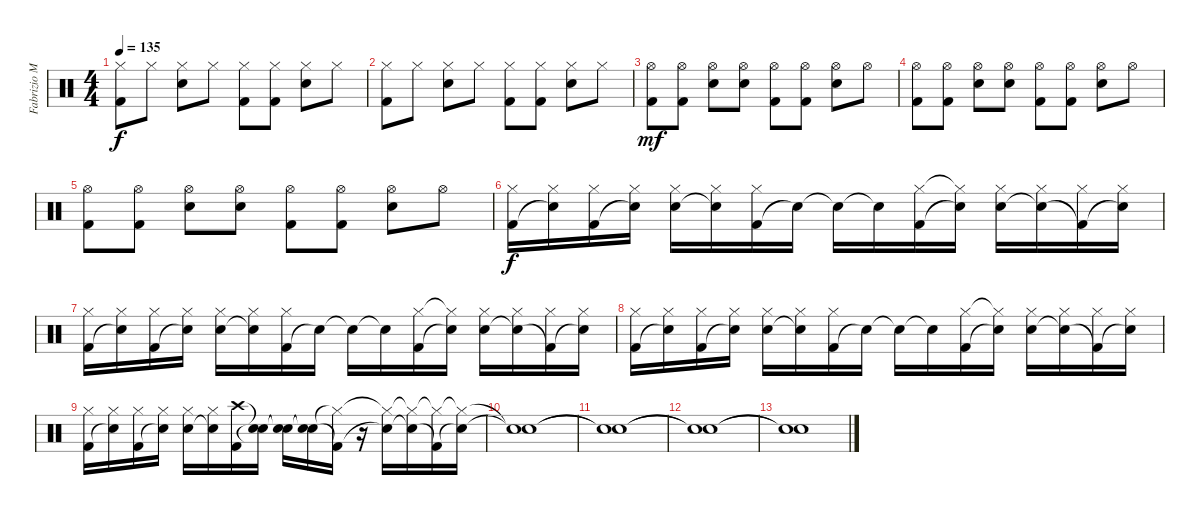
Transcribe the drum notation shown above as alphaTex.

\track ("Fabrizio Moretti" "Fabrizio M") {instrument percussion}
\staff {score}
\articulation defaults
\ts (4 4)
\tempo 135
\clef neutral
\ks c
("Hi-Hat (closed)" "Kick (hit) 2").8{dy f} "Hi-Hat (closed)".8 ("Hi-Hat (closed)" "Electric Snare (hit)").8 "Hi-Hat (closed)".8 ("Hi-Hat (closed)" "Kick (hit) 2").8 ("Hi-Hat (closed)" "Kick (hit) 2").8 ("Hi-Hat (closed)" "Electric Snare (hit)").8 "Hi-Hat (closed)".8 |
("Hi-Hat (closed)" "Kick (hit) 2").8 "Hi-Hat (closed)".8 ("Hi-Hat (closed)" "Electric Snare (hit)").8 "Hi-Hat (closed)".8 ("Hi-Hat (closed)" "Kick (hit) 2").8 ("Hi-Hat (closed)" "Kick (hit) 2").8 ("Hi-Hat (closed)" "Electric Snare (hit)").8 "Hi-Hat (closed)".8 |
("Hi-Hat (open)" "Kick (hit) 2").8{dy mf} ("Hi-Hat (open)" "Kick (hit) 2").8 ("Hi-Hat (open)" "Electric Snare (hit)").8 ("Hi-Hat (open)" "Electric Snare (hit)").8 ("Hi-Hat (open)" "Kick (hit) 2").8 ("Hi-Hat (open)" "Kick (hit) 2").8 ("Hi-Hat (open)" "Electric Snare (hit)").8 "Hi-Hat (open)".8 |
("Hi-Hat (open)" "Kick (hit) 2").8 ("Hi-Hat (open)" "Kick (hit) 2").8 ("Hi-Hat (open)" "Electric Snare (hit)").8 ("Hi-Hat (open)" "Electric Snare (hit)").8 ("Hi-Hat (open)" "Kick (hit) 2").8 ("Hi-Hat (open)" "Kick (hit) 2").8 ("Hi-Hat (open)" "Electric Snare (hit)").8 "Hi-Hat (open)".8 |
("Hi-Hat (open)" "Kick (hit) 2").8 ("Hi-Hat (open)" "Kick (hit) 2").8 ("Hi-Hat (open)" "Electric Snare (hit)").8 ("Hi-Hat (open)" "Electric Snare (hit)").8 ("Hi-Hat (open)" "Kick (hit) 2").8 ("Hi-Hat (open)" "Kick (hit) 2").8 ("Hi-Hat (open)" "Electric Snare (hit)").8 "Hi-Hat (open)".8 |
("Kick (hit) 2" "Hi-Hat (closed)").16{dy f} ("Snare (hit)"{t} "Hi-Hat (closed)").16 ("Kick (hit) 2" "Hi-Hat (closed)").16 ("Snare (hit)"{t} "Hi-Hat (closed)").16 ("Electric Snare (hit)" "Hi-Hat (closed)").16 ("Snare (hit)"{t} "Hi-Hat (closed)").16 ("Kick (hit) 2" "Hi-Hat (closed)").16 "Snare (hit)"{t}.16 "Snare (hit)"{t}.16 "Snare (hit)"{t}.16 ("Kick (hit) 2" "Hi-Hat (closed)").16 ("Snare (hit)"{t} "Hi-Hat (closed)"{t}).16 ("Electric Snare (hit)" "Hi-Hat (closed)").16 ("Snare (hit)"{t} "Hi-Hat (closed)").16 ("Kick (hit) 2"{t} "Hi-Hat (closed)").16 ("Snare (hit)"{t} "Hi-Hat (closed)").16 |
("Kick (hit) 2" "Hi-Hat (closed)").16 ("Snare (hit)"{t} "Hi-Hat (closed)").16 ("Kick (hit) 2" "Hi-Hat (closed)").16 ("Snare (hit)"{t} "Hi-Hat (closed)").16 ("Electric Snare (hit)" "Hi-Hat (closed)").16 ("Snare (hit)"{t} "Hi-Hat (closed)").16 ("Kick (hit) 2" "Hi-Hat (closed)").16 "Snare (hit)"{t}.16 "Snare (hit)"{t}.16 "Snare (hit)"{t}.16 ("Kick (hit) 2" "Hi-Hat (closed)").16 ("Snare (hit)"{t} "Hi-Hat (closed)"{t}).16 ("Electric Snare (hit)" "Hi-Hat (closed)").16 ("Snare (hit)"{t} "Hi-Hat (closed)").16 ("Kick (hit) 2"{t} "Hi-Hat (closed)").16 ("Snare (hit)"{t} "Hi-Hat (closed)").16 |
("Kick (hit) 2" "Hi-Hat (closed)").16 ("Snare (hit)"{t} "Hi-Hat (closed)").16 ("Kick (hit) 2" "Hi-Hat (closed)").16 ("Snare (hit)"{t} "Hi-Hat (closed)").16 ("Electric Snare (hit)" "Hi-Hat (closed)").16 ("Snare (hit)"{t} "Hi-Hat (closed)").16 ("Kick (hit) 2" "Hi-Hat (closed)").16 "Snare (hit)"{t}.16 "Snare (hit)"{t}.16 "Snare (hit)"{t}.16 ("Kick (hit) 2" "Hi-Hat (closed)").16 ("Snare (hit)"{t} "Hi-Hat (closed)"{t}).16 ("Electric Snare (hit)" "Hi-Hat (closed)").16 ("Snare (hit)"{t} "Hi-Hat (closed)").16 ("Kick (hit) 2"{t} "Hi-Hat (closed)").16 ("Snare (hit)"{t} "Hi-Hat (closed)").16 |
("Kick (hit) 2" "Hi-Hat (closed)").16 ("Snare (hit)"{t} "Hi-Hat (closed)").16 ("Kick (hit) 2" "Hi-Hat (closed)").16 ("Snare (hit)"{t} "Hi-Hat (closed)").16 ("Electric Snare (hit)" "Hi-Hat (closed)").16 ("Snare (hit)"{t} "Hi-Hat (closed)").16 ("Kick (hit) 2" "Crash high (hit)").16 ("Snare (hit)"{t} "Snare (hit)"{t}).16 ("Snare (hit)"{t} "Snare (hit)"{t}).16 ("Snare (hit)"{t} "Snare (hit)"{t}).16 ("Kick (hit) 2"{t} "Hi-Hat (closed)"{t}).16 r.16 ("Electric Snare (hit)"{t} "Hi-Hat (closed)"{t}).16 ("Snare (hit)"{t} "Hi-Hat (closed)"{t}).16 ("Kick (hit) 2"{t} "Hi-Hat (closed)"{t}).16 ("Snare (hit)"{t} "Hi-Hat (closed)"{t}).16 |
("Snare (hit)"{t} "Snare (hit)"{t}).1 |
("Snare (hit)"{t} "Snare (hit)"{t}).1 |
("Snare (hit)"{t} "Snare (hit)"{t}).1{volume 0} |
("Snare (hit)"{t} "Snare (hit)"{t}).1
